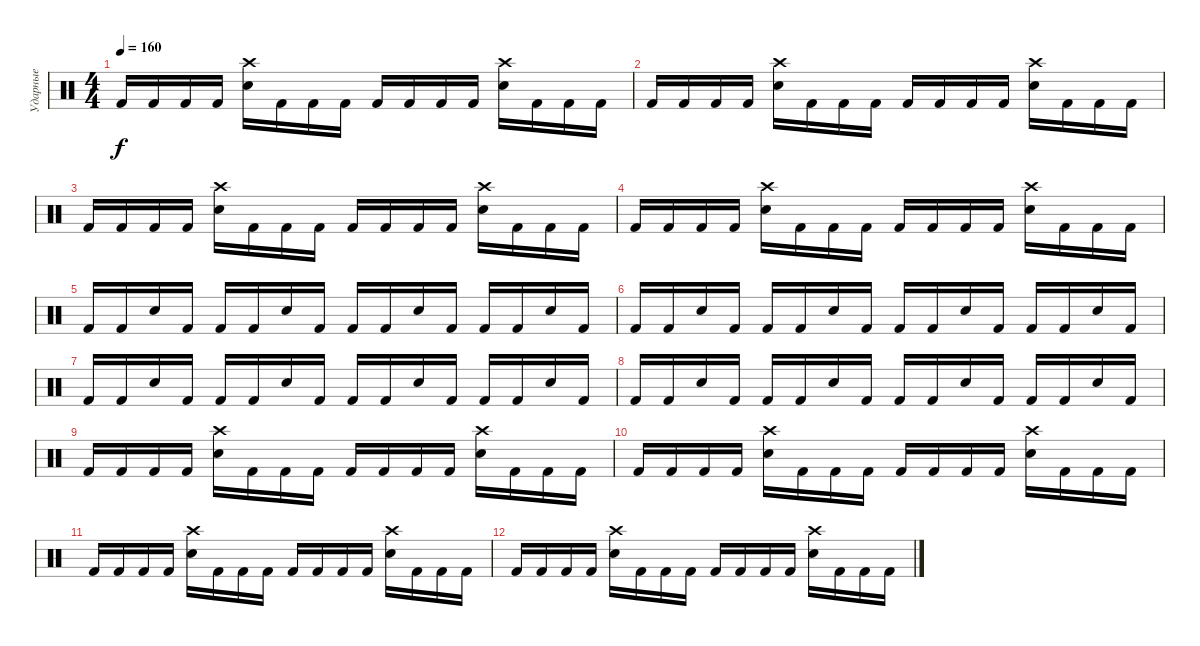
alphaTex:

\track ("Ударные" "Ударные") {instrument percussion}
\staff {score}
\articulation defaults
\ts (4 4)
\tempo 160
\clef neutral
\ks c "Kick (hit) 2".16{dy f} "Kick (hit) 2".16 "Kick (hit) 2".16 "Kick (hit) 2".16
("Crash high (hit)" "Electric Snare (hit)").16 "Kick (hit) 2".16 "Kick (hit) 2".16 "Kick (hit) 2".16 "Kick (hit) 2".16 "Kick (hit) 2".16 "Kick (hit) 2".16 "Kick (hit) 2".16 ("Crash high (hit)" "Electric Snare (hit)").16 "Kick (hit) 2".16 "Kick (hit) 2".16 "Kick (hit) 2".16 |
"Kick (hit) 2".16 "Kick (hit) 2".16 "Kick (hit) 2".16 "Kick (hit) 2".16 ("Crash high (hit)" "Electric Snare (hit)").16 "Kick (hit) 2".16 "Kick (hit) 2".16 "Kick (hit) 2".16 "Kick (hit) 2".16 "Kick (hit) 2".16 "Kick (hit) 2".16 "Kick (hit) 2".16 ("Crash high (hit)" "Electric Snare (hit)").16 "Kick (hit) 2".16 "Kick (hit) 2".16 "Kick (hit) 2".16 |
"Kick (hit) 2".16 "Kick (hit) 2".16 "Kick (hit) 2".16 "Kick (hit) 2".16 ("Crash high (hit)" "Electric Snare (hit)").16 "Kick (hit) 2".16 "Kick (hit) 2".16 "Kick (hit) 2".16 "Kick (hit) 2".16 "Kick (hit) 2".16 "Kick (hit) 2".16 "Kick (hit) 2".16 ("Crash high (hit)" "Electric Snare (hit)").16 "Kick (hit) 2".16 "Kick (hit) 2".16 "Kick (hit) 2".16 |
"Kick (hit) 2".16 "Kick (hit) 2".16 "Kick (hit) 2".16 "Kick (hit) 2".16 ("Crash high (hit)" "Electric Snare (hit)").16 "Kick (hit) 2".16 "Kick (hit) 2".16 "Kick (hit) 2".16 "Kick (hit) 2".16 "Kick (hit) 2".16 "Kick (hit) 2".16 "Kick (hit) 2".16 ("Crash high (hit)" "Electric Snare (hit)").16 "Kick (hit) 2".16 "Kick (hit) 2".16 "Kick (hit) 2".16 |
"Kick (hit) 2".16 "Kick (hit) 2".16 "Electric Snare (hit)".16 "Kick (hit) 2".16 "Kick (hit) 2".16 "Kick (hit) 2".16 "Electric Snare (hit)".16 "Kick (hit) 2".16 "Kick (hit) 2".16 "Kick (hit) 2".16 "Electric Snare (hit)".16 "Kick (hit) 2".16 "Kick (hit) 2".16 "Kick (hit) 2".16 "Electric Snare (hit)".16 "Kick (hit) 2".16 |
"Kick (hit) 2".16 "Kick (hit) 2".16 "Electric Snare (hit)".16 "Kick (hit) 2".16 "Kick (hit) 2".16 "Kick (hit) 2".16 "Electric Snare (hit)".16 "Kick (hit) 2".16 "Kick (hit) 2".16 "Kick (hit) 2".16 "Electric Snare (hit)".16 "Kick (hit) 2".16 "Kick (hit) 2".16 "Kick (hit) 2".16 "Electric Snare (hit)".16 "Kick (hit) 2".16 |
"Kick (hit) 2".16 "Kick (hit) 2".16 "Electric Snare (hit)".16 "Kick (hit) 2".16 "Kick (hit) 2".16 "Kick (hit) 2".16 "Electric Snare (hit)".16 "Kick (hit) 2".16 "Kick (hit) 2".16 "Kick (hit) 2".16 "Electric Snare (hit)".16 "Kick (hit) 2".16 "Kick (hit) 2".16 "Kick (hit) 2".16 "Electric Snare (hit)".16 "Kick (hit) 2".16 |
"Kick (hit) 2".16 "Kick (hit) 2".16 "Electric Snare (hit)".16 "Kick (hit) 2".16 "Kick (hit) 2".16 "Kick (hit) 2".16 "Electric Snare (hit)".16 "Kick (hit) 2".16 "Kick (hit) 2".16 "Kick (hit) 2".16 "Electric Snare (hit)".16 "Kick (hit) 2".16 "Kick (hit) 2".16 "Kick (hit) 2".16 "Electric Snare (hit)".16 "Kick (hit) 2".16 |
"Kick (hit) 2".16 "Kick (hit) 2".16 "Kick (hit) 2".16 "Kick (hit) 2".16 ("Crash high (hit)" "Electric Snare (hit)").16 "Kick (hit) 2".16 "Kick (hit) 2".16 "Kick (hit) 2".16 "Kick (hit) 2".16 "Kick (hit) 2".16 "Kick (hit) 2".16 "Kick (hit) 2".16 ("Crash high (hit)" "Electric Snare (hit)").16 "Kick (hit) 2".16 "Kick (hit) 2".16 "Kick (hit) 2".16 |
"Kick (hit) 2".16 "Kick (hit) 2".16 "Kick (hit) 2".16 "Kick (hit) 2".16 ("Crash high (hit)" "Electric Snare (hit)").16 "Kick (hit) 2".16 "Kick (hit) 2".16 "Kick (hit) 2".16 "Kick (hit) 2".16 "Kick (hit) 2".16 "Kick (hit) 2".16 "Kick (hit) 2".16 ("Crash high (hit)" "Electric Snare (hit)").16 "Kick (hit) 2".16 "Kick (hit) 2".16 "Kick (hit) 2".16 |
"Kick (hit) 2".16 "Kick (hit) 2".16 "Kick (hit) 2".16 "Kick (hit) 2".16 ("Crash high (hit)" "Electric Snare (hit)").16 "Kick (hit) 2".16 "Kick (hit) 2".16 "Kick (hit) 2".16 "Kick (hit) 2".16 "Kick (hit) 2".16 "Kick (hit) 2".16 "Kick (hit) 2".16 ("Crash high (hit)" "Electric Snare (hit)").16 "Kick (hit) 2".16 "Kick (hit) 2".16 "Kick (hit) 2".16 |
"Kick (hit) 2".16 "Kick (hit) 2".16 "Kick (hit) 2".16 "Kick (hit) 2".16 ("Crash high (hit)" "Electric Snare (hit)").16 "Kick (hit) 2".16 "Kick (hit) 2".16 "Kick (hit) 2".16 "Kick (hit) 2".16 "Kick (hit) 2".16 "Kick (hit) 2".16 "Kick (hit) 2".16 ("Crash high (hit)" "Electric Snare (hit)").16 "Kick (hit) 2".16 "Kick (hit) 2".16 "Kick (hit) 2".16
